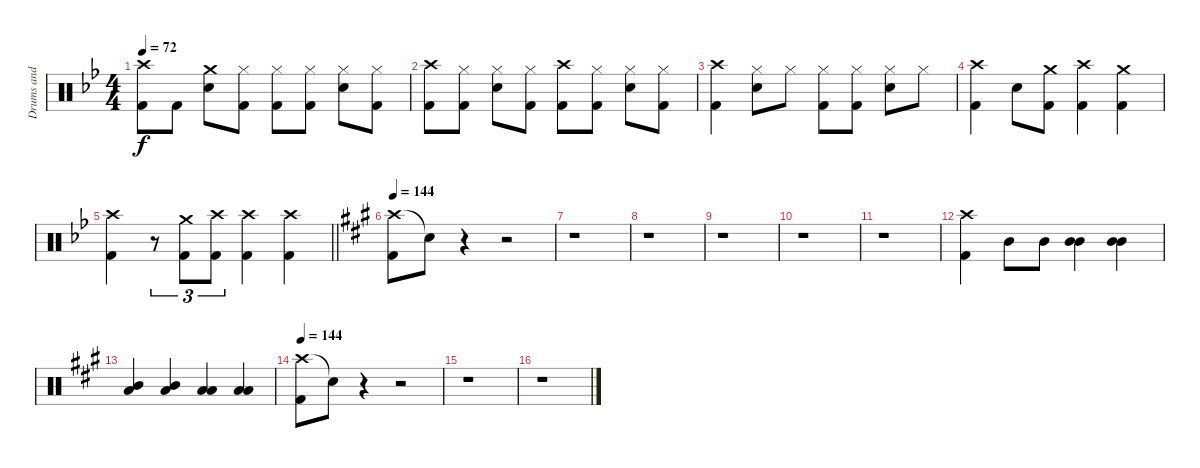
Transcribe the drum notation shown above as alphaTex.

\track ("Drums and percussion" "Drums and ") {instrument percussion}
\staff {score}
\articulation defaults
\ts (4 4)
\tempo 72
\clef neutral
\ks bb
("Crash high (hit)" "Kick (hit) 2").8{dy f} "Kick (hit) 2".8 ("Crash medium (hit)" "Snare (hit) 2").8 ("Hi-Hat (closed)" "Kick (hit) 2").8 ("Hi-Hat (closed)" "Kick (hit) 2").8 ("Hi-Hat (closed)" "Kick (hit) 2").8 ("Hi-Hat (closed)" "Snare (hit) 2").8 ("Hi-Hat (closed)" "Kick (hit) 2").8 |
("Crash high (hit)" "Kick (hit) 2").8 ("Hi-Hat (closed)" "Kick (hit) 2").8 ("Hi-Hat (closed)" "Snare (hit) 2").8 ("Hi-Hat (closed)" "Kick (hit) 2").8 ("Crash high (hit)" "Kick (hit) 2").8 ("Hi-Hat (closed)" "Kick (hit) 2").8 ("Hi-Hat (closed)" "Snare (hit) 2").8 ("Hi-Hat (closed)" "Kick (hit) 2").8 |
("Crash high (hit)" "Kick (hit) 2").4 ("Hi-Hat (closed)" "Snare (hit) 2").8 "Hi-Hat (closed)".8 ("Hi-Hat (closed)" "Kick (hit) 2").8 ("Hi-Hat (closed)" "Kick (hit) 2").8 ("Hi-Hat (closed)" "Snare (hit) 2").8 "Hi-Hat (closed)".8 |
("Crash high (hit)" "Kick (hit) 2").4 "Snare (hit) 2".8 ("Crash medium (hit)" "Kick (hit) 2").8 ("Crash high (hit)" "Kick (hit) 2").4 ("Crash medium (hit)" "Kick (hit) 2").4 |
\barLineRight lightlight
("Crash high (hit)" "Kick (hit) 2").4 r.8{tu (3 2)} ("Crash medium (hit)" "Kick (hit) 2").8{tu (3 2)} ("Crash high (hit)" "Kick (hit) 2").8{tu (3 2)} ("Crash high (hit)" "Kick (hit) 2").4 ("Crash high (hit)" "Kick (hit) 2").4 |
\tempo 144
\ks a
("Crash high (hit)" "Kick (hit) 2").8 "Snare (hit)"{t}.8 r.4 r.2 |
r.1 |
r.1 |
r.1 |
r.1 |
r.1 |
("Crash high (hit)" "Kick (hit) 2").4 "Mid Tom (hit)".8 "Mid Tom (hit)".8 ("Mid Tom (hit)" "Mid Tom (hit)").4 ("Mid Tom (hit)" "Mid Tom (hit)").4 |
("Mid Tom (hit)" "Low Tom (hit)").4 ("Mid Tom (hit)" "Low Tom (hit)").4 ("Low Tom (hit)" "Low Tom (hit)").4 ("Low Tom (hit)" "Low Tom (hit)").4 |
\tempo 144
("Crash high (hit)" "Kick (hit) 2").8 "Snare (hit)"{t}.8 r.4 r.2 |
r.1 |
r.1
